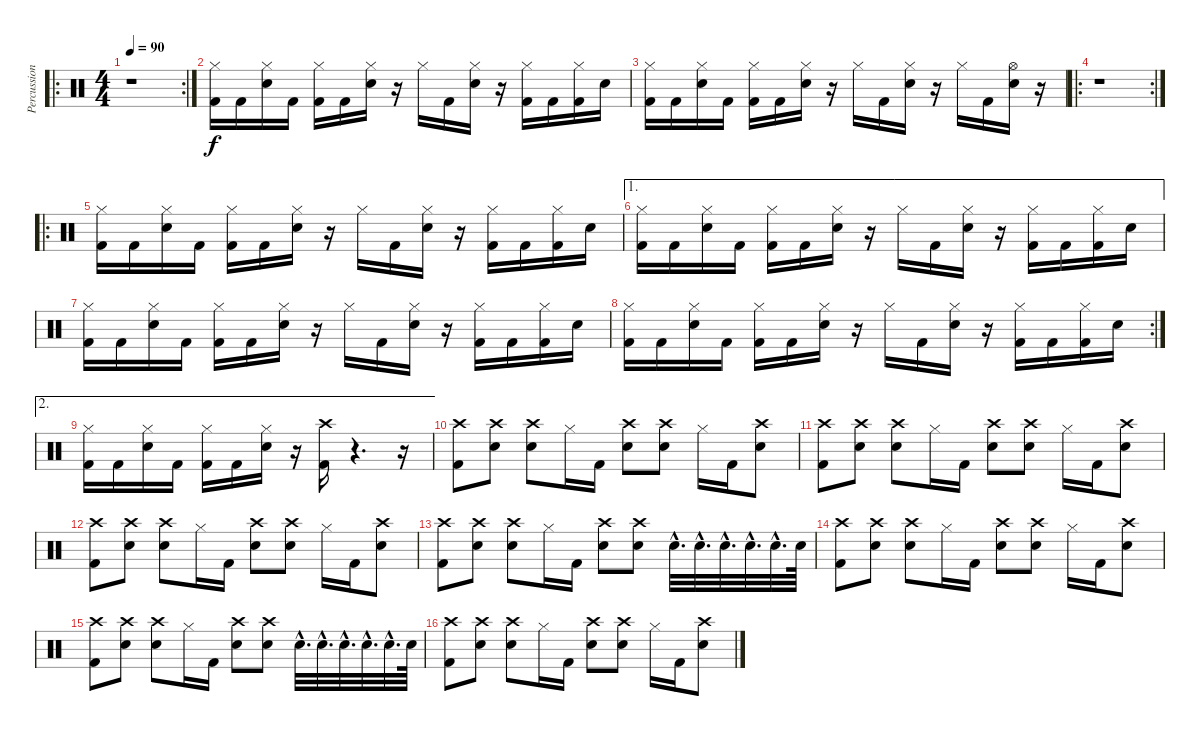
\track ("Percussion" "Percussion") {instrument percussion}
\staff {score}
\articulation defaults
\ro
\rc 2
\ts (4 4)
\tempo 90
\clef neutral
\ks c
r.1{dy f} |
("Hi-Hat (closed)" "Kick (hit) 2").16 "Kick (hit) 2".16 ("Hi-Hat (closed)" "Snare (hit) 2").16 "Kick (hit) 2".16 ("Hi-Hat (closed)" "Kick (hit) 2").16 "Kick (hit) 2".16 ("Hi-Hat (closed)" "Snare (hit) 2").16 r.16 "Hi-Hat (closed)".16 "Kick (hit) 2".16 ("Hi-Hat (closed)" "Snare (hit) 2").16 r.16 ("Hi-Hat (closed)" "Kick (hit) 2").16 "Kick (hit) 2".16 ("Hi-Hat (closed)" "Kick (hit) 2").16 "Snare (hit) 2".16 |
("Hi-Hat (closed)" "Kick (hit) 2").16 "Kick (hit) 2".16 ("Hi-Hat (closed)" "Snare (hit) 2").16 "Kick (hit) 2".16 ("Hi-Hat (closed)" "Kick (hit) 2").16 "Kick (hit) 2".16 ("Hi-Hat (closed)" "Snare (hit) 2").16 r.16 "Hi-Hat (closed)".16 "Kick (hit) 2".16 ("Hi-Hat (closed)" "Snare (hit) 2").16 r.16 "Hi-Hat (closed)".16 "Kick (hit) 2".16 ("Hi-Hat (open)" "Snare (hit) 2").16 r.16 |
\ro
\rc 2
r.1 |
\ro
("Hi-Hat (closed)" "Kick (hit) 2").16 "Kick (hit) 2".16 ("Hi-Hat (closed)" "Snare (hit) 2").16 "Kick (hit) 2".16 ("Hi-Hat (closed)" "Kick (hit) 2").16 "Kick (hit) 2".16 ("Hi-Hat (closed)" "Snare (hit) 2").16 r.16 "Hi-Hat (closed)".16 "Kick (hit) 2".16 ("Hi-Hat (closed)" "Snare (hit) 2").16 r.16 ("Hi-Hat (closed)" "Kick (hit) 2").16 "Kick (hit) 2".16 ("Hi-Hat (closed)" "Kick (hit) 2").16 "Snare (hit) 2".16 |
\ae 1
("Hi-Hat (closed)" "Kick (hit) 2").16 "Kick (hit) 2".16 ("Hi-Hat (closed)" "Snare (hit) 2").16 "Kick (hit) 2".16 ("Hi-Hat (closed)" "Kick (hit) 2").16 "Kick (hit) 2".16 ("Hi-Hat (closed)" "Snare (hit) 2").16 r.16 "Hi-Hat (closed)".16 "Kick (hit) 2".16 ("Hi-Hat (closed)" "Snare (hit) 2").16 r.16 ("Hi-Hat (closed)" "Kick (hit) 2").16 "Kick (hit) 2".16 ("Hi-Hat (closed)" "Kick (hit) 2").16 "Snare (hit) 2".16 |
("Hi-Hat (closed)" "Kick (hit) 2").16 "Kick (hit) 2".16 ("Hi-Hat (closed)" "Snare (hit) 2").16 "Kick (hit) 2".16 ("Hi-Hat (closed)" "Kick (hit) 2").16 "Kick (hit) 2".16 ("Hi-Hat (closed)" "Snare (hit) 2").16 r.16 "Hi-Hat (closed)".16 "Kick (hit) 2".16 ("Hi-Hat (closed)" "Snare (hit) 2").16 r.16 ("Hi-Hat (closed)" "Kick (hit) 2").16 "Kick (hit) 2".16 ("Hi-Hat (closed)" "Kick (hit) 2").16 "Snare (hit) 2".16 |
\rc 2
("Hi-Hat (closed)" "Kick (hit) 2").16 "Kick (hit) 2".16 ("Hi-Hat (closed)" "Snare (hit) 2").16 "Kick (hit) 2".16 ("Hi-Hat (closed)" "Kick (hit) 2").16 "Kick (hit) 2".16 ("Hi-Hat (closed)" "Snare (hit) 2").16 r.16 "Hi-Hat (closed)".16 "Kick (hit) 2".16 ("Hi-Hat (closed)" "Snare (hit) 2").16 r.16 ("Hi-Hat (closed)" "Kick (hit) 2").16 "Kick (hit) 2".16 ("Hi-Hat (closed)" "Kick (hit) 2").16 "Snare (hit) 2".16 |
\ae 2
("Hi-Hat (closed)" "Kick (hit) 2").16 "Kick (hit) 2".16 ("Hi-Hat (closed)" "Snare (hit) 2").16 "Kick (hit) 2".16 ("Hi-Hat (closed)" "Kick (hit) 2").16 "Kick (hit) 2".16 ("Hi-Hat (closed)" "Snare (hit) 2").16 r.16 ("Crash high (hit)" "Kick (hit) 2").16 r.4{d} r.16 |
("Crash high (hit)" "Kick (hit) 2").8 ("Crash high (hit)" "Snare (hit) 2").8 ("Crash high (hit)" "Snare (hit) 2").8 "Hi-Hat (closed)".16 "Kick (hit) 2".16 ("Crash high (hit)" "Snare (hit) 2").8 ("Crash high (hit)" "Snare (hit) 2").8 "Hi-Hat (closed)".16 "Kick (hit) 2".16 ("Crash high (hit)" "Snare (hit) 2").8 |
("Crash high (hit)" "Kick (hit) 2").8 ("Crash high (hit)" "Snare (hit) 2").8 ("Crash high (hit)" "Snare (hit) 2").8 "Hi-Hat (closed)".16 "Kick (hit) 2".16 ("Crash high (hit)" "Snare (hit) 2").8 ("Crash high (hit)" "Snare (hit) 2").8 "Hi-Hat (closed)".16 "Kick (hit) 2".16 ("Crash high (hit)" "Snare (hit) 2").8 |
("Crash high (hit)" "Kick (hit) 2").8 ("Crash high (hit)" "Snare (hit) 2").8 ("Crash high (hit)" "Snare (hit) 2").8 "Hi-Hat (closed)".16 "Kick (hit) 2".16 ("Crash high (hit)" "Snare (hit) 2").8 ("Crash high (hit)" "Snare (hit) 2").8 "Hi-Hat (closed)".16 "Kick (hit) 2".16 ("Crash high (hit)" "Snare (hit) 2").8 |
("Crash high (hit)" "Kick (hit) 2").8 ("Crash high (hit)" "Snare (hit) 2").8 ("Crash high (hit)" "Snare (hit) 2").8 "Hi-Hat (closed)".16 "Kick (hit) 2".16 ("Crash high (hit)" "Snare (hit) 2").8 ("Crash high (hit)" "Snare (hit) 2").8 "Snare (hit) 2"{hac}.32{d} "Snare (hit) 2"{hac}.32{d} "Snare (hit) 2"{hac}.32{d} "Snare (hit) 2"{hac}.32{d} "Snare (hit) 2"{hac}.32{d} "Snare (hit) 2".64 |
("Crash high (hit)" "Kick (hit) 2").8 ("Crash high (hit)" "Snare (hit) 2").8 ("Crash high (hit)" "Snare (hit) 2").8 "Hi-Hat (closed)".16 "Kick (hit) 2".16 ("Crash high (hit)" "Snare (hit) 2").8 ("Crash high (hit)" "Snare (hit) 2").8 "Hi-Hat (closed)".16 "Kick (hit) 2".16 ("Crash high (hit)" "Snare (hit) 2").8 |
("Crash high (hit)" "Kick (hit) 2").8 ("Crash high (hit)" "Snare (hit) 2").8 ("Crash high (hit)" "Snare (hit) 2").8 "Hi-Hat (closed)".16 "Kick (hit) 2".16 ("Crash high (hit)" "Snare (hit) 2").8 ("Crash high (hit)" "Snare (hit) 2").8 "Snare (hit) 2"{hac}.32{d} "Snare (hit) 2"{hac}.32{d} "Snare (hit) 2"{hac}.32{d} "Snare (hit) 2"{hac}.32{d} "Snare (hit) 2"{hac}.32{d} "Snare (hit) 2".64 |
("Crash high (hit)" "Kick (hit) 2").8 ("Crash high (hit)" "Snare (hit) 2").8 ("Crash high (hit)" "Snare (hit) 2").8 "Hi-Hat (closed)".16 "Kick (hit) 2".16 ("Crash high (hit)" "Snare (hit) 2").8 ("Crash high (hit)" "Snare (hit) 2").8 "Hi-Hat (closed)".16 "Kick (hit) 2".16 ("Crash high (hit)" "Snare (hit) 2").8
